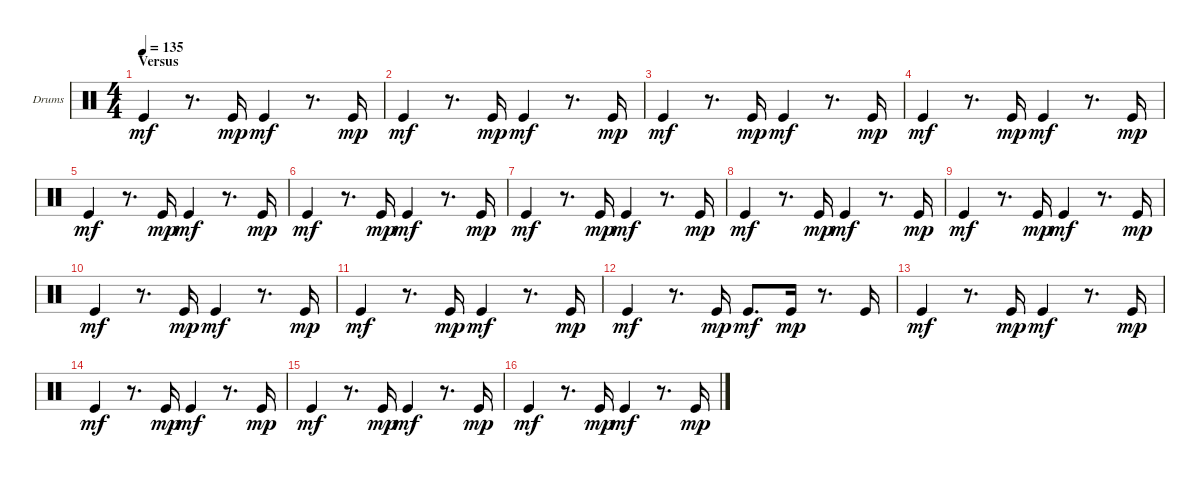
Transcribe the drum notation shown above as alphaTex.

\bracketExtendMode groupsimilarinstruments
\firstSystemTrackNameOrientation horizontal
\otherSystemsTrackNameOrientation horizontal
\track ("Kick" "Drums") {instrument percussion}
\staff {score}
\articulation defaults
\ts (4 4)
\section ("" "Versus")
\tempo 135
\clef neutral
\ks c "Kick (hit)".4{dy mf}
r.8{d} "Kick (hit)".16{dy mp} "Kick (hit)".4{dy mf} r.8{d} "Kick (hit)".16{dy mp} |
"Kick (hit)".4{dy mf} r.8{d} "Kick (hit)".16{dy mp} "Kick (hit)".4{dy mf} r.8{d} "Kick (hit)".16{dy mp} |
"Kick (hit)".4{dy mf} r.8{d} "Kick (hit)".16{dy mp} "Kick (hit)".4{dy mf} r.8{d} "Kick (hit)".16{dy mp} |
"Kick (hit)".4{dy mf} r.8{d} "Kick (hit)".16{dy mp} "Kick (hit)".4{dy mf} r.8{d} "Kick (hit)".16{dy mp} |
"Kick (hit)".4{dy mf} r.8{d} "Kick (hit)".16{dy mp} "Kick (hit)".4{dy mf} r.8{d} "Kick (hit)".16{dy mp} |
"Kick (hit)".4{dy mf} r.8{d} "Kick (hit)".16{dy mp} "Kick (hit)".4{dy mf} r.8{d} "Kick (hit)".16{dy mp} |
"Kick (hit)".4{dy mf} r.8{d} "Kick (hit)".16{dy mp} "Kick (hit)".4{dy mf} r.8{d} "Kick (hit)".16{dy mp} |
"Kick (hit)".4{dy mf} r.8{d} "Kick (hit)".16{dy mp} "Kick (hit)".4{dy mf} r.8{d} "Kick (hit)".16{dy mp} |
"Kick (hit)".4{dy mf} r.8{d} "Kick (hit)".16{dy mp} "Kick (hit)".4{dy mf} r.8{d} "Kick (hit)".16{dy mp} |
"Kick (hit)".4{dy mf} r.8{d} "Kick (hit)".16{dy mp} "Kick (hit)".4{dy mf} r.8{d} "Kick (hit)".16{dy mp} |
"Kick (hit)".4{dy mf} r.8{d} "Kick (hit)".16{dy mp} "Kick (hit)".4{dy mf} r.8{d} "Kick (hit)".16{dy mp} |
"Kick (hit)".4{dy mf} r.8{d} "Kick (hit)".16{dy mp} "Kick (hit)".8{d dy mf} "Kick (hit)".16{dy mp} r.8{d} "Kick (hit)".16 |
"Kick (hit)".4{dy mf} r.8{d} "Kick (hit)".16{dy mp} "Kick (hit)".4{dy mf} r.8{d} "Kick (hit)".16{dy mp} |
"Kick (hit)".4{dy mf} r.8{d} "Kick (hit)".16{dy mp} "Kick (hit)".4{dy mf} r.8{d} "Kick (hit)".16{dy mp} |
"Kick (hit)".4{dy mf} r.8{d} "Kick (hit)".16{dy mp} "Kick (hit)".4{dy mf} r.8{d} "Kick (hit)".16{dy mp} |
"Kick (hit)".4{dy mf} r.8{d} "Kick (hit)".16{dy mp} "Kick (hit)".4{dy mf} r.8{d} "Kick (hit)".16{dy mp}
